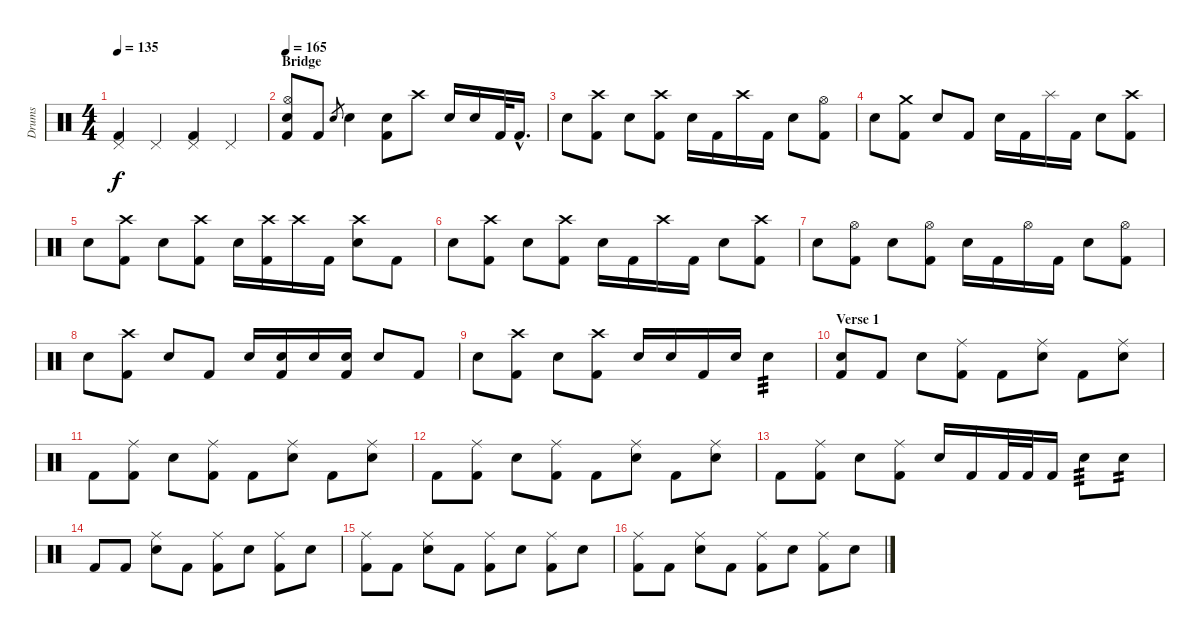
\track ("Drums" "Drums") {instrument percussion}
\staff {score}
\articulation defaults
\ts (4 4)
\tempo 135
\clef neutral
\ks c
("Pedal Hi-Hat (hit)" "Kick (hit) 2").4{dy f} "Pedal Hi-Hat (hit)".4 ("Pedal Hi-Hat (hit)" "Kick (hit) 2").4 "Pedal Hi-Hat (hit)".4 |
\section ("" "Bridge")
\tempo 165
("Hi-Hat (open)" "Electric Snare (hit)" "Kick (hit) 2").8 "Kick (hit) 2".8 "Electric Snare (hit)".8{gr} "Electric Snare (hit)".4 ("Electric Snare (hit)" "Kick (hit) 2").8 "Crash high (hit)".8 "Electric Snare (hit)".16 "Electric Snare (hit)".16 "Kick (hit) 2".32 "Kick (hit) 2"{hac}.16{d} |
"Electric Snare (hit)".8 ("Crash high (hit)" "Kick (hit) 2").8 "Electric Snare (hit)".8 ("Crash high (hit)" "Kick (hit) 2").8 "Electric Snare (hit)".16 "Kick (hit) 2".16 "Crash high (hit)".16 "Kick (hit) 2".16 "Electric Snare (hit)".8 ("Hi-Hat (open)" "Kick (hit) 2").8 |
"Electric Snare (hit)".8 ("Crash medium (hit)" "Kick (hit) 2").8 "Electric Snare (hit)".8 "Kick (hit) 2".8 "Electric Snare (hit)".16 "Kick (hit) 2".16 "Splash (hit)".16 "Kick (hit) 2".16 "Electric Snare (hit)".8 ("Crash high (hit)" "Kick (hit) 2").8 |
"Electric Snare (hit)".8 ("Crash high (hit)" "Kick (hit) 2").8 "Electric Snare (hit)".8 ("Crash high (hit)" "Kick (hit) 2").8 "Electric Snare (hit)".16 ("Crash high (hit)" "Kick (hit) 2").16 "Crash high (hit)".16 "Kick (hit) 2".16 ("Crash high (hit)" "Electric Snare (hit)").8 "Kick (hit) 2".8 |
"Electric Snare (hit)".8 ("Crash high (hit)" "Kick (hit) 2").8 "Electric Snare (hit)".8 ("Crash high (hit)" "Kick (hit) 2").8 "Electric Snare (hit)".16 "Kick (hit) 2".16 "Crash high (hit)".16 "Kick (hit) 2".16 "Electric Snare (hit)".8 ("Crash high (hit)" "Kick (hit) 2").8 |
"Electric Snare (hit)".8 ("Hi-Hat (open)" "Kick (hit) 2").8 "Electric Snare (hit)".8 ("Hi-Hat (open)" "Kick (hit) 2").8 "Electric Snare (hit)".16 "Kick (hit) 2".16 "Hi-Hat (open)".16 "Kick (hit) 2".16 "Electric Snare (hit)".8 ("Hi-Hat (open)" "Kick (hit) 2").8 |
"Electric Snare (hit)".8 ("Crash high (hit)" "Kick (hit) 2").8 "Electric Snare (hit)".8 "Kick (hit) 2".8 "Electric Snare (hit)".16 ("Electric Snare (hit)" "Kick (hit) 2").16 "Electric Snare (hit)".16 ("Electric Snare (hit)" "Kick (hit) 2").16 "Electric Snare (hit)".8 "Kick (hit) 2".8 |
"Electric Snare (hit)".8 ("Crash high (hit)" "Kick (hit) 2").8 "Electric Snare (hit)".8 ("Crash high (hit)" "Kick (hit) 2").8 "Electric Snare (hit)".16 "Electric Snare (hit)".16 "Kick (hit) 2".16 "Electric Snare (hit)".16 "Electric Snare (hit)".4{tp 3} |
\section ("" "Verse 1")
("Electric Snare (hit)" "Kick (hit) 2").8 "Kick (hit) 2".8 "Electric Snare (hit)".8 ("Ride (middle)" "Kick (hit) 2").8 "Kick (hit) 2".8 ("Ride (middle)" "Electric Snare (hit)").8 "Kick (hit) 2".8 ("Ride (middle)" "Electric Snare (hit)").8 |
"Kick (hit) 2".8 ("Ride (middle)" "Kick (hit) 2").8 "Electric Snare (hit)".8 ("Ride (middle)" "Kick (hit) 2").8 "Kick (hit) 2".8 ("Ride (middle)" "Electric Snare (hit)").8 "Kick (hit) 2".8 ("Ride (middle)" "Electric Snare (hit)").8 |
"Kick (hit) 2".8 ("Ride (middle)" "Kick (hit) 2").8 "Electric Snare (hit)".8 ("Ride (middle)" "Kick (hit) 2").8 "Kick (hit) 2".8 ("Ride (middle)" "Electric Snare (hit)").8 "Kick (hit) 2".8 ("Ride (middle)" "Electric Snare (hit)").8 |
"Kick (hit) 2".8 ("Ride (middle)" "Kick (hit) 2").8 "Electric Snare (hit)".8 ("Ride (middle)" "Kick (hit) 2").8 "Electric Snare (hit)".16 "Kick (hit) 2".16 "Kick (hit) 2".32 "Kick (hit) 2".32 "Kick (hit) 2".16 "Electric Snare (hit)".8{tp 3} "Electric Snare (hit)".8{tp 2} |
"Kick (hit) 2".8 "Kick (hit) 2".8 ("Ride (middle)" "Electric Snare (hit)").8 "Kick (hit) 2".8 ("Ride (middle)" "Kick (hit) 2").8 "Electric Snare (hit)".8 ("Ride (middle)" "Kick (hit) 2").8 "Electric Snare (hit)".8 |
("Ride (middle)" "Kick (hit) 2").8 "Kick (hit) 2".8 ("Ride (middle)" "Electric Snare (hit)").8 "Kick (hit) 2".8 ("Ride (middle)" "Kick (hit) 2").8 "Electric Snare (hit)".8 ("Ride (middle)" "Kick (hit) 2").8 "Electric Snare (hit)".8 |
("Ride (middle)" "Kick (hit) 2").8 "Kick (hit) 2".8 ("Ride (middle)" "Electric Snare (hit)").8 "Kick (hit) 2".8 ("Ride (middle)" "Kick (hit) 2").8 "Electric Snare (hit)".8 ("Ride (middle)" "Kick (hit) 2").8 "Electric Snare (hit)".8
